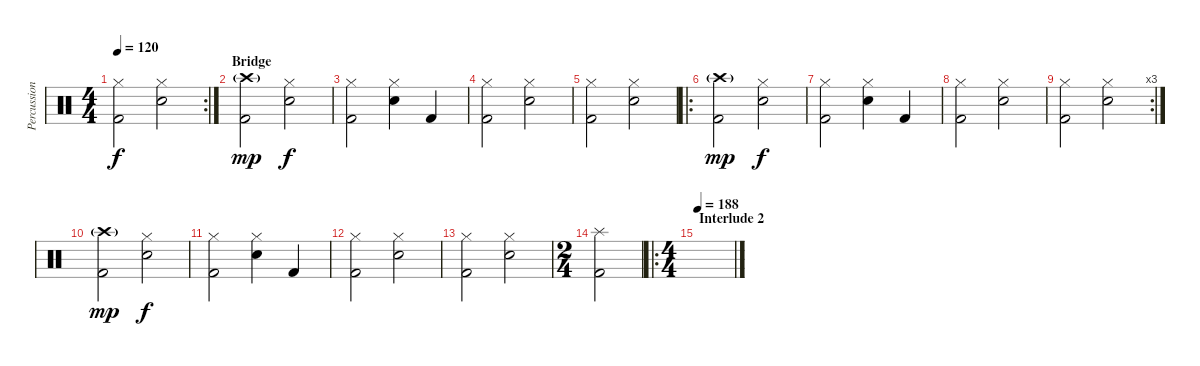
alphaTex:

\track ("Percussion" "Percussion") {instrument percussion}
\staff {score}
\articulation defaults
\rc 2
\ts (4 4)
\tempo 120
\clef neutral
\ks c
("Hi-Hat (closed)" "Kick (hit) 2").2{dy f} ("Hi-Hat (closed)" "Electric Snare (hit)").2 |
\section ("" "Bridge")
("Crash high (hit)"{g} "Kick (hit) 2").2{dy mp} ("Hi-Hat (closed)" "Electric Snare (hit)").2{dy f} |
("Hi-Hat (closed)" "Kick (hit) 2").2 ("Hi-Hat (closed)" "Electric Snare (hit)").4 "Kick (hit) 2".4 |
("Hi-Hat (closed)" "Kick (hit) 2").2 ("Hi-Hat (closed)" "Electric Snare (hit)").2 |
("Hi-Hat (closed)" "Kick (hit) 2").2 ("Hi-Hat (closed)" "Electric Snare (hit)").2 |
\ro
("Crash high (hit)"{g} "Kick (hit) 2").2{dy mp} ("Hi-Hat (closed)" "Electric Snare (hit)").2{dy f} |
("Hi-Hat (closed)" "Kick (hit) 2").2 ("Hi-Hat (closed)" "Electric Snare (hit)").4 "Kick (hit) 2".4 |
("Hi-Hat (closed)" "Kick (hit) 2").2 ("Hi-Hat (closed)" "Electric Snare (hit)").2 |
\rc 3
("Hi-Hat (closed)" "Kick (hit) 2").2 ("Hi-Hat (closed)" "Electric Snare (hit)").2 |
("Crash high (hit)"{g} "Kick (hit) 2").2{dy mp} ("Hi-Hat (closed)" "Electric Snare (hit)").2{dy f} |
("Hi-Hat (closed)" "Kick (hit) 2").2 ("Hi-Hat (closed)" "Electric Snare (hit)").4 "Kick (hit) 2".4 |
("Hi-Hat (closed)" "Kick (hit) 2").2 ("Hi-Hat (closed)" "Electric Snare (hit)").2 |
("Hi-Hat (closed)" "Kick (hit) 2").2 ("Hi-Hat (closed)" "Electric Snare (hit)").2 |
\ts (2 4)
("Splash (hit)" "Kick (hit) 2").2 |
\ro
\ts (4 4)
\section ("" "Interlude 2")
\tempo 188
